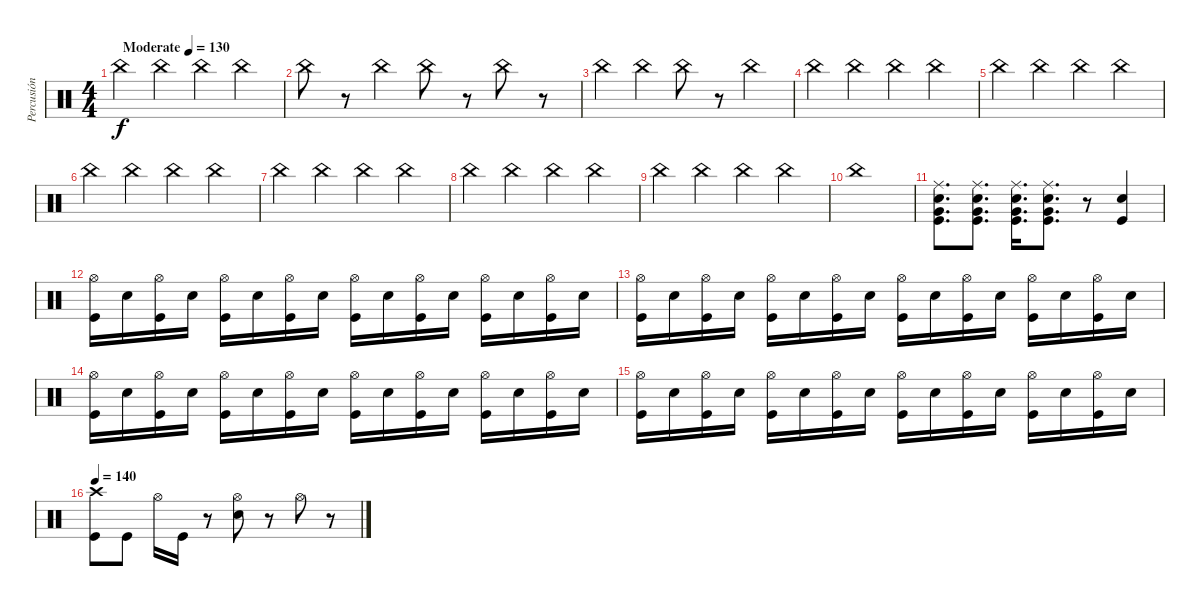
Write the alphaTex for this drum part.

\track ("Percusión  Gabriela" "Percusión ") {instrument percussion}
\staff {score}
\articulation defaults
\ts (4 4)
\tempo (130 "Moderate")
\clef neutral
\ks c "China (hit)".4{dy f} "China (hit)".4 "China (hit)".4 "China (hit)".4
|
"China (hit)".8 r.8 "China (hit)".4 "China (hit)".8 r.8 "China (hit)".8 r.8 |
"China (hit)".4 "China (hit)".4 "China (hit)".8 r.8 "China (hit)".4 |
"China (hit)".4 "China (hit)".4 "China (hit)".4 "China (hit)".4 |
"China (hit)".4 "China (hit)".4 "China (hit)".4 "China (hit)".4 |
"China (hit)".4 "China (hit)".4 "China (hit)".4 "China (hit)".4 |
"China (hit)".4 "China (hit)".4 "China (hit)".4 "China (hit)".4 |
"China (hit)".4 "China (hit)".4 "China (hit)".4 "China (hit)".4 |
"China (hit)".4 "China (hit)".4 "China (hit)".4 "China (hit)".4 |
"China (hit)".1 |
("Very Low Tom (hit)" "Kick (hit)" "Snare (hit) 2" "Ride (middle)").8{d} ("Very Low Tom (hit)" "Kick (hit)" "Snare (hit) 2" "Ride (middle)").8{d} ("Very Low Tom (hit)" "Kick (hit)" "Snare (hit) 2" "Ride (middle)").16{d} ("Very Low Tom (hit)" "Kick (hit)" "Snare (hit) 2" "Ride (middle)").8{d} r.8 ("Kick (hit)" "Snare (hit) 2").4 |
("Kick (hit)" "Hi-Hat (open)").16 "Snare (hit) 2".16 ("Kick (hit)" "Hi-Hat (open)").16 "Snare (hit) 2".16 ("Kick (hit)" "Hi-Hat (open)").16 "Snare (hit) 2".16 ("Kick (hit)" "Hi-Hat (open)").16 "Snare (hit) 2".16 ("Kick (hit)" "Hi-Hat (open)").16 "Snare (hit) 2".16 ("Kick (hit)" "Hi-Hat (open)").16 "Snare (hit) 2".16 ("Kick (hit)" "Hi-Hat (open)").16 "Snare (hit) 2".16 ("Kick (hit)" "Hi-Hat (open)").16 "Snare (hit) 2".16 |
("Kick (hit)" "Hi-Hat (open)").16 "Snare (hit) 2".16 ("Kick (hit)" "Hi-Hat (open)").16 "Snare (hit) 2".16 ("Kick (hit)" "Hi-Hat (open)").16 "Snare (hit) 2".16 ("Kick (hit)" "Hi-Hat (open)").16 "Snare (hit) 2".16 ("Kick (hit)" "Hi-Hat (open)").16 "Snare (hit) 2".16 ("Kick (hit)" "Hi-Hat (open)").16 "Snare (hit) 2".16 ("Kick (hit)" "Hi-Hat (open)").16 "Snare (hit) 2".16 ("Kick (hit)" "Hi-Hat (open)").16 "Snare (hit) 2".16 |
("Kick (hit)" "Hi-Hat (open)").16 "Snare (hit) 2".16 ("Kick (hit)" "Hi-Hat (open)").16 "Snare (hit) 2".16 ("Kick (hit)" "Hi-Hat (open)").16 "Snare (hit) 2".16 ("Kick (hit)" "Hi-Hat (open)").16 "Snare (hit) 2".16 ("Kick (hit)" "Hi-Hat (open)").16 "Snare (hit) 2".16 ("Kick (hit)" "Hi-Hat (open)").16 "Snare (hit) 2".16 ("Kick (hit)" "Hi-Hat (open)").16 "Snare (hit) 2".16 ("Kick (hit)" "Hi-Hat (open)").16 "Snare (hit) 2".16 |
("Kick (hit)" "Hi-Hat (open)").16 "Snare (hit) 2".16 ("Kick (hit)" "Hi-Hat (open)").16 "Snare (hit) 2".16 ("Kick (hit)" "Hi-Hat (open)").16 "Snare (hit) 2".16 ("Kick (hit)" "Hi-Hat (open)").16 "Snare (hit) 2".16 ("Kick (hit)" "Hi-Hat (open)").16 "Snare (hit) 2".16 ("Kick (hit)" "Hi-Hat (open)").16 "Snare (hit) 2".16 ("Kick (hit)" "Hi-Hat (open)").16 "Snare (hit) 2".16 ("Kick (hit)" "Hi-Hat (open)").16 "Snare (hit) 2".16 |
\tempo 140
("Crash high (hit)" "Kick (hit)").8 "Kick (hit)".8 "Hi-Hat (open)".16 "Kick (hit)".16 r.8 ("Snare (hit) 2" "Hi-Hat (open)").8 r.8 "Hi-Hat (open)".8 r.8
